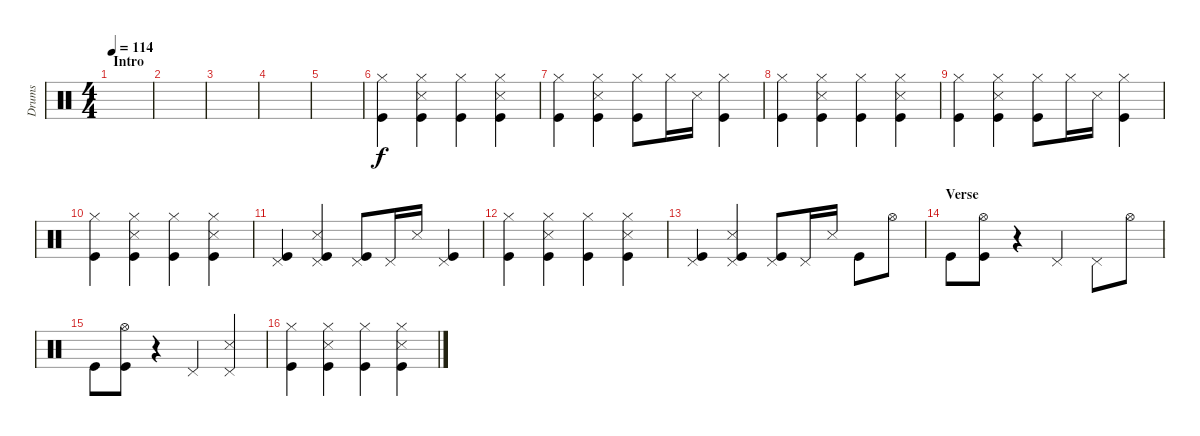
\track ("Drums" "Drums") {instrument percussion}
\staff {score}
\articulation defaults
\ts (4 4)
\section ("" "Intro")
\tempo 114
\clef neutral
\ks c
|
|
|
|
|
("Hi-Hat (closed)" "Kick (hit)").4 ("Hi-Hat (closed)" "Snare (side stick) 3" "Kick (hit)").4 ("Hi-Hat (closed)" "Kick (hit)").4 ("Hi-Hat (closed)" "Snare (side stick) 3" "Kick (hit)").4 |
("Hi-Hat (closed)" "Kick (hit)").4 ("Hi-Hat (closed)" "Snare (side stick) 3" "Kick (hit)").4 ("Hi-Hat (closed)" "Kick (hit)").8 "Hi-Hat (closed)".16 "Snare (side stick) 3".16 ("Hi-Hat (closed)" "Kick (hit)").4 |
("Hi-Hat (closed)" "Kick (hit)").4 ("Hi-Hat (closed)" "Snare (side stick) 3" "Kick (hit)").4 ("Hi-Hat (closed)" "Kick (hit)").4 ("Hi-Hat (closed)" "Snare (side stick) 3" "Kick (hit)").4 |
("Hi-Hat (closed)" "Kick (hit)").4 ("Hi-Hat (closed)" "Snare (side stick) 3" "Kick (hit)").4 ("Hi-Hat (closed)" "Kick (hit)").8 "Hi-Hat (closed)".16 "Snare (side stick) 3".16 ("Hi-Hat (closed)" "Kick (hit)").4 |
("Hi-Hat (closed)" "Kick (hit)").4 ("Hi-Hat (closed)" "Snare (side stick) 3" "Kick (hit)").4 ("Hi-Hat (closed)" "Kick (hit)").4 ("Hi-Hat (closed)" "Snare (side stick) 3" "Kick (hit)").4 |
("Pedal Hi-Hat (hit)" "Kick (hit)").4 ("Pedal Hi-Hat (hit)" "Snare (side stick) 3" "Kick (hit)").4 ("Pedal Hi-Hat (hit)" "Kick (hit)").8 "Pedal Hi-Hat (hit)".16 "Snare (side stick) 3".16 ("Pedal Hi-Hat (hit)" "Kick (hit)").4 |
("Hi-Hat (closed)" "Kick (hit)").4 ("Hi-Hat (closed)" "Snare (side stick) 3" "Kick (hit)").4 ("Hi-Hat (closed)" "Kick (hit)").4 ("Hi-Hat (closed)" "Snare (side stick) 3" "Kick (hit)").4 |
("Pedal Hi-Hat (hit)" "Kick (hit)").4 ("Pedal Hi-Hat (hit)" "Snare (side stick) 3" "Kick (hit)").4 ("Pedal Hi-Hat (hit)" "Kick (hit)").8 "Pedal Hi-Hat (hit)".16 "Snare (side stick) 3".16 "Kick (hit)".8 "Hi-Hat (open)".8 |
\section ("" "Verse")
"Kick (hit)".8 ("Hi-Hat (open)" "Kick (hit)").8 r.4 "Pedal Hi-Hat (hit)".4 "Pedal Hi-Hat (hit)".8 "Hi-Hat (open)".8 |
"Kick (hit)".8 ("Hi-Hat (open)" "Kick (hit)").8 r.4 "Pedal Hi-Hat (hit)".4 ("Pedal Hi-Hat (hit)" "Snare (side stick) 3").4 |
("Hi-Hat (closed)" "Kick (hit)").4 ("Hi-Hat (closed)" "Snare (side stick) 3" "Kick (hit)").4 ("Hi-Hat (closed)" "Kick (hit)").4 ("Hi-Hat (closed)" "Snare (side stick) 3" "Kick (hit)").4
